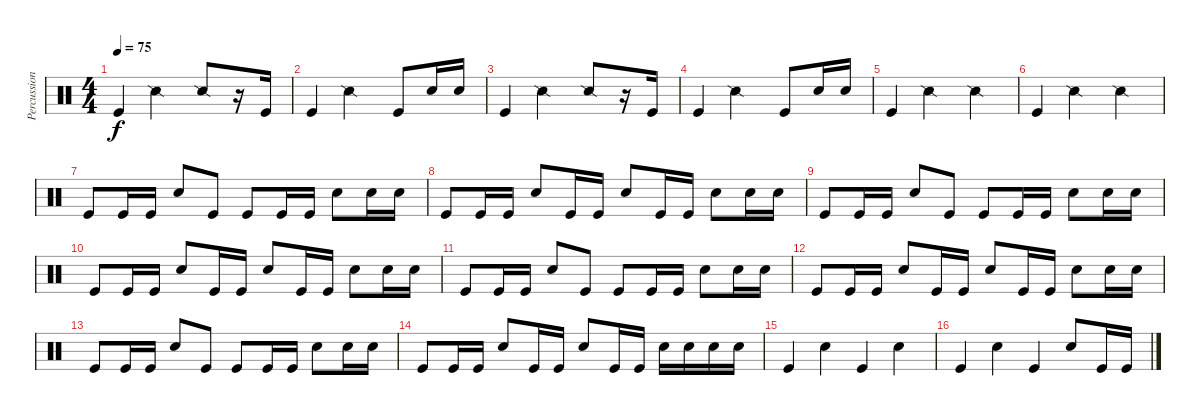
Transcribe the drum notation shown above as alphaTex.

\track ("Percussioni" "Percussion") {instrument percussion}
\staff {score}
\articulation defaults
\ts (4 4)
\tempo 75
\clef neutral
\ks c "Kick (hit)".4{dy f} "Snare (side stick) 2".2 "Snare (side stick) 2".8
r.16 "Kick (hit)".16 |
"Kick (hit)".4 "Snare (side stick) 2".2 "Kick (hit)".8 "Snare (hit) 2".16 "Snare (hit) 2".16 |
"Kick (hit)".4 "Snare (side stick) 2".2 "Snare (side stick) 2".8 r.16 "Kick (hit)".16 |
"Kick (hit)".4 "Snare (side stick) 2".2 "Kick (hit)".8 "Snare (hit) 2".16 "Snare (hit) 2".16 |
"Kick (hit)".4 "Snare (side stick) 2".2 "Snare (side stick) 2".4 |
"Kick (hit)".4 "Snare (side stick) 2".2 "Snare (side stick) 2".4 |
"Kick (hit)".8 "Kick (hit)".16 "Kick (hit)".16 "Snare (hit) 2".8 "Kick (hit)".8 "Kick (hit)".8 "Kick (hit)".16 "Kick (hit)".16 "Snare (hit) 2".8 "Snare (hit) 2".16 "Snare (hit) 2".16 |
"Kick (hit)".8 "Kick (hit)".16 "Kick (hit)".16 "Snare (hit) 2".8 "Kick (hit)".16 "Kick (hit)".16 "Snare (hit) 2".8 "Kick (hit)".16 "Kick (hit)".16 "Snare (hit) 2".8 "Snare (hit) 2".16 "Snare (hit) 2".16 |
"Kick (hit)".8 "Kick (hit)".16 "Kick (hit)".16 "Snare (hit) 2".8 "Kick (hit)".8 "Kick (hit)".8 "Kick (hit)".16 "Kick (hit)".16 "Snare (hit) 2".8 "Snare (hit) 2".16 "Snare (hit) 2".16 |
"Kick (hit)".8 "Kick (hit)".16 "Kick (hit)".16 "Snare (hit) 2".8 "Kick (hit)".16 "Kick (hit)".16 "Snare (hit) 2".8 "Kick (hit)".16 "Kick (hit)".16 "Snare (hit) 2".8 "Snare (hit) 2".16 "Snare (hit) 2".16 |
"Kick (hit)".8 "Kick (hit)".16 "Kick (hit)".16 "Snare (hit) 2".8 "Kick (hit)".8 "Kick (hit)".8 "Kick (hit)".16 "Kick (hit)".16 "Snare (hit) 2".8 "Snare (hit) 2".16 "Snare (hit) 2".16 |
"Kick (hit)".8 "Kick (hit)".16 "Kick (hit)".16 "Snare (hit) 2".8 "Kick (hit)".16 "Kick (hit)".16 "Snare (hit) 2".8 "Kick (hit)".16 "Kick (hit)".16 "Snare (hit) 2".8 "Snare (hit) 2".16 "Snare (hit) 2".16 |
"Kick (hit)".8 "Kick (hit)".16 "Kick (hit)".16 "Snare (hit) 2".8 "Kick (hit)".8 "Kick (hit)".8 "Kick (hit)".16 "Kick (hit)".16 "Snare (hit) 2".8 "Snare (hit) 2".16 "Snare (hit) 2".16 |
"Kick (hit)".8 "Kick (hit)".16 "Kick (hit)".16 "Snare (hit) 2".8 "Kick (hit)".16 "Kick (hit)".16 "Snare (hit) 2".8 "Kick (hit)".16 "Kick (hit)".16 "Snare (hit) 2".16 "Snare (hit) 2".16 "Snare (hit) 2".16 "Snare (hit) 2".16 |
"Kick (hit)".4 "Snare (hit) 2".4 "Kick (hit)".4 "Snare (hit) 2".4 |
"Kick (hit)".4 "Snare (hit) 2".4 "Kick (hit)".4 "Snare (hit) 2".8 "Kick (hit)".16 "Kick (hit)".16
